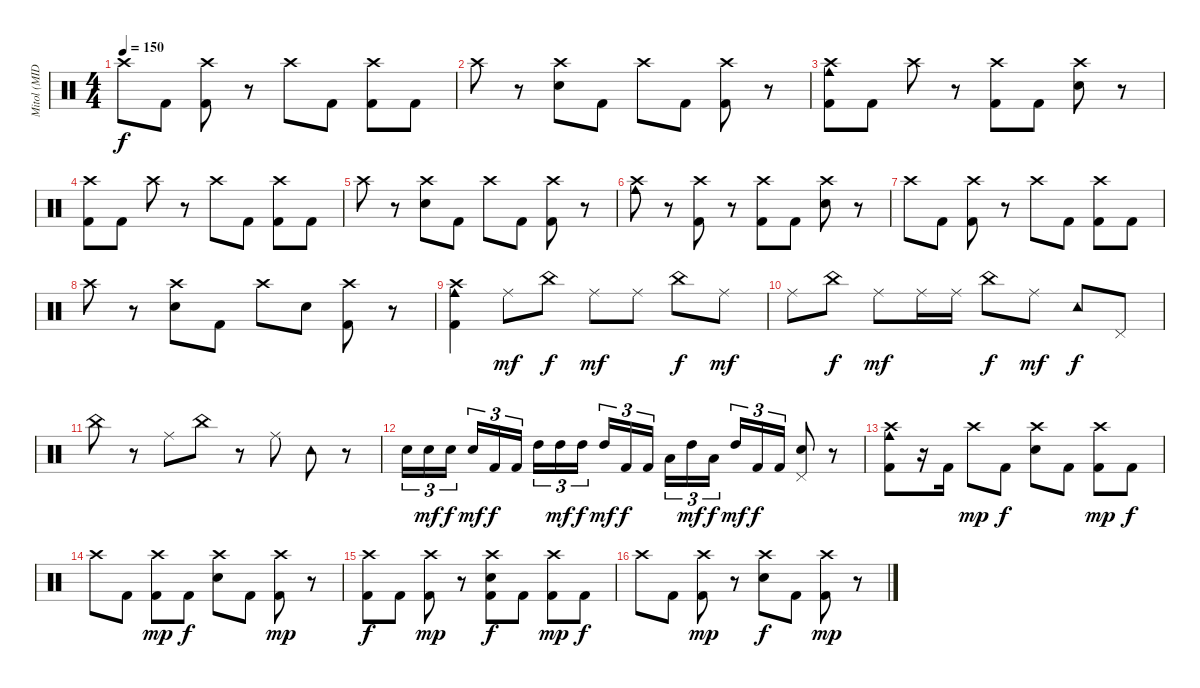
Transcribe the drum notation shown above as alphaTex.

\track ("Mitol (MIDI)" "Mitol (MID") {instrument percussion}
\staff {score}
\articulation defaults
\ts (4 4)
\tempo 150
\clef neutral
\ks c "Crash high (hit)".8{dy f} "Kick (hit) 2".8
("Kick (hit) 2" "Crash high (hit)").8 r.8 "Crash high (hit)".8 "Kick (hit) 2".8 ("Crash high (hit)" "Kick (hit) 2").8 "Kick (hit) 2".8 |
"Crash high (hit)".8 r.8 ("Electric Snare (hit)" "Crash high (hit)").8 "Kick (hit) 2".8 "Crash high (hit)".8 "Kick (hit) 2".8 ("Kick (hit) 2" "Crash high (hit)").8 r.8 |
("Cowbell medium (hit)" "Crash high (hit)" "Kick (hit) 2").8 "Kick (hit) 2".8 "Crash high (hit)".8 r.8 ("Kick (hit) 2" "Crash high (hit)").8 "Kick (hit) 2".8 ("Electric Snare (hit)" "Crash high (hit)").8 r.8 |
("Crash high (hit)" "Kick (hit) 2").8 "Kick (hit) 2".8 "Crash high (hit)".8 r.8 "Crash high (hit)".8 "Kick (hit) 2".8 ("Kick (hit) 2" "Crash high (hit)").8 "Kick (hit) 2".8 |
"Crash high (hit)".8 r.8 ("Electric Snare (hit)" "Crash high (hit)").8 "Kick (hit) 2".8 "Crash high (hit)".8 "Kick (hit) 2".8 ("Crash high (hit)" "Kick (hit) 2").8 r.8 |
("Cowbell medium (hit)" "Crash high (hit)").8 r.8 ("Kick (hit) 2" "Crash high (hit)").8 r.8 ("Crash high (hit)" "Kick (hit) 2").8 "Kick (hit) 2".8 ("Electric Snare (hit)" "Crash high (hit)").8 r.8 |
"Crash high (hit)".8 "Kick (hit) 2".8 ("Crash high (hit)" "Kick (hit) 2").8 r.8 "Crash high (hit)".8 "Kick (hit) 2".8 ("Kick (hit) 2" "Crash high (hit)").8 "Kick (hit) 2".8 |
"Crash high (hit)".8 r.8 ("Crash high (hit)" "Electric Snare (hit)").8 "Kick (hit) 2".8 "Crash high (hit)".8 "Electric Snare (hit)".8 ("Crash high (hit)" "Kick (hit) 2").8 r.8 |
("Cowbell medium (hit)" "Crash high (hit)" "Kick (hit) 2").4 "Ride (middle)".8{dy mf} "China (hit)".8{dy f} "Ride (middle)".8{dy mf} "Ride (middle)".8 "China (hit)".8{dy f} "Ride (middle)".8{dy mf} |
"Ride (middle)".8 "China (hit)".8{dy f} "Ride (middle)".8{dy mf} "Ride (middle)".16 "Ride (middle)".16 "China (hit)".8{dy f} "Ride (middle)".8{dy mf} "Tambourine (hit)".8{dy f} "Pedal Hi-Hat (hit)".8 |
"China (hit)".8 r.8 "Ride (middle)".8 "China (hit)".8 r.8 "Ride (middle)".8 "Tambourine (hit)".8 r.8 |
"Electric Snare (hit)".16{tu (3 2)} "Electric Snare (hit)".16{tu (3 2) dy mf} "Electric Snare (hit)".16{tu (3 2) dy f beam splitsecondary} "Electric Snare (hit)".16{tu (3 2) dy mf} "Kick (hit) 2".16{tu (3 2) dy f} "Kick (hit) 2".16{tu (3 2)} "High Tom (hit)".16{tu (3 2)} "High Tom (hit)".16{tu (3 2) dy mf} "High Tom (hit)".16{tu (3 2) dy f beam splitsecondary} "High Tom (hit)".16{tu (3 2) dy mf} "Kick (hit) 2".16{tu (3 2) dy f} "Kick (hit) 2".16{tu (3 2)} "Low Tom (hit)".16{tu (3 2)} "High Tom (hit)".16{tu (3 2) dy mf} "Low Tom (hit)".16{tu (3 2) dy f beam splitsecondary} "High Tom (hit)".16{tu (3 2) dy mf} "Kick (hit) 2".16{tu (3 2) dy f} "Kick (hit) 2".16{tu (3 2)} ("Pedal Hi-Hat (hit)" "Electric Snare (hit)").8 r.8 |
("Cowbell medium (hit)" "Crash high (hit)" "Kick (hit) 2").8 r.16 "Kick (hit) 2".16 "Crash high (hit)".8{dy mp} "Kick (hit) 2".8{dy f} ("Electric Snare (hit)" "Crash high (hit)").8 "Kick (hit) 2".8 ("Kick (hit) 2" "Crash high (hit)").8{dy mp} "Kick (hit) 2".8{dy f} |
"Crash high (hit)".8 "Kick (hit) 2".8 ("Crash high (hit)" "Kick (hit) 2").8{dy mp} "Kick (hit) 2".8{dy f} ("Crash high (hit)" "Electric Snare (hit)").8 "Kick (hit) 2".8 ("Kick (hit) 2" "Crash high (hit)").8{dy mp} r.8 |
("Crash high (hit)" "Kick (hit) 2").8{dy f} "Kick (hit) 2".8 ("Kick (hit) 2" "Crash high (hit)").8{dy mp} r.8 ("Kick (hit) 2" "Electric Snare (hit)" "Crash high (hit)").8{dy f} "Kick (hit) 2".8 ("Crash high (hit)" "Kick (hit) 2").8{dy mp} "Kick (hit) 2".8{dy f} |
"Crash high (hit)".8 "Kick (hit) 2".8 ("Crash high (hit)" "Kick (hit) 2").8{dy mp} r.8 ("Crash high (hit)" "Electric Snare (hit)").8{dy f} "Kick (hit) 2".8 ("Crash high (hit)" "Kick (hit) 2").8{dy mp} r.8
